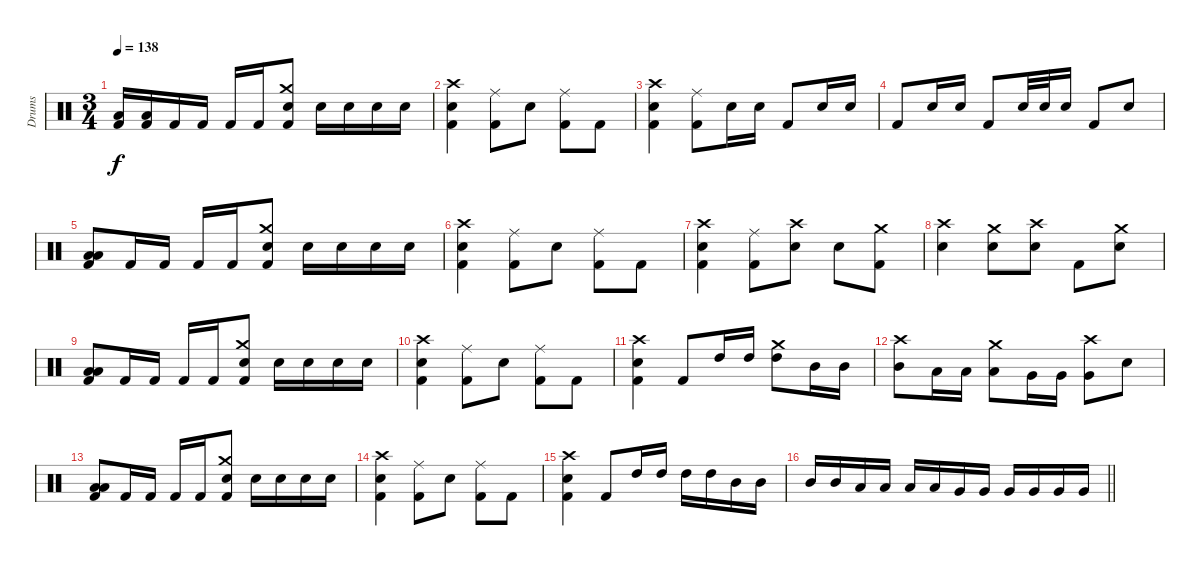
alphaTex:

\track ("Drums" "Drums") {instrument percussion}
\staff {score}
\articulation defaults
\ts (3 4)
\tempo 138
\clef neutral
\ks c
("Low Tom (hit)" "Kick (hit) 2").16{dy f} ("Low Tom (hit)" "Kick (hit) 2").16 "Kick (hit) 2".16 "Kick (hit) 2".16 "Kick (hit) 2".16 "Kick (hit) 2".16 ("Crash medium (hit)" "Electric Snare (hit)" "Kick (hit) 2").8 "Electric Snare (hit)".16 "Electric Snare (hit)".16 "Electric Snare (hit)".16 "Electric Snare (hit)".16 |
("Crash high (hit)" "Electric Snare (hit)" "Kick (hit) 2").4 ("Ride (middle)" "Kick (hit) 2").8 "Electric Snare (hit)".8 ("Ride (middle)" "Kick (hit) 2").8 "Kick (hit) 2".8 |
("Crash high (hit)" "Electric Snare (hit)" "Kick (hit) 2").4 ("Ride (middle)" "Kick (hit) 2").8 "Electric Snare (hit)".16 "Electric Snare (hit)".16 "Kick (hit) 2".8 "Electric Snare (hit)".16 "Electric Snare (hit)".16 |
"Kick (hit) 2".8 "Electric Snare (hit)".16 "Electric Snare (hit)".16 "Kick (hit) 2".8 "Electric Snare (hit)".32 "Electric Snare (hit)".32 "Electric Snare (hit)".16 "Kick (hit) 2".8 "Electric Snare (hit)".8 |
("Low Tom (hit)" "Low Tom (hit)" "Kick (hit) 2").8 "Kick (hit) 2".16 "Kick (hit) 2".16 "Kick (hit) 2".16 "Kick (hit) 2".16 ("Crash medium (hit)" "Electric Snare (hit)" "Kick (hit) 2").8 "Electric Snare (hit)".16 "Electric Snare (hit)".16 "Electric Snare (hit)".16 "Electric Snare (hit)".16 |
("Crash high (hit)" "Electric Snare (hit)" "Kick (hit) 2").4 ("Ride (middle)" "Kick (hit) 2").8 "Electric Snare (hit)".8 ("Ride (middle)" "Kick (hit) 2").8 "Kick (hit) 2".8 |
("Crash high (hit)" "Electric Snare (hit)" "Kick (hit) 2").4 ("Ride (middle)" "Kick (hit) 2").8 ("Crash high (hit)" "Electric Snare (hit)").8 "Electric Snare (hit)".8 ("Crash medium (hit)" "Kick (hit) 2").8 |
("Crash high (hit)" "Electric Snare (hit)").4 ("Crash medium (hit)" "Electric Snare (hit)").8 ("Crash high (hit)" "Electric Snare (hit)").8 "Kick (hit) 2".8 ("Crash medium (hit)" "Electric Snare (hit)").8 |
("Low Tom (hit)" "Low Tom (hit)" "Kick (hit) 2").8 "Kick (hit) 2".16 "Kick (hit) 2".16 "Kick (hit) 2".16 "Kick (hit) 2".16 ("Crash medium (hit)" "Electric Snare (hit)" "Kick (hit) 2").8 "Electric Snare (hit)".16 "Electric Snare (hit)".16 "Electric Snare (hit)".16 "Electric Snare (hit)".16 |
("Crash high (hit)" "Electric Snare (hit)" "Kick (hit) 2").4 ("Ride (middle)" "Kick (hit) 2").8 "Electric Snare (hit)".8 ("Ride (middle)" "Kick (hit) 2").8 "Kick (hit) 2".8 |
("Crash high (hit)" "Electric Snare (hit)" "Kick (hit) 2").4 "Kick (hit) 2".8 "High Tom (hit)".16 "High Tom (hit)".16 ("Crash medium (hit)" "High Tom (hit)").8 "Mid Tom (hit)".16 "Mid Tom (hit)".16 |
("Crash high (hit)" "Mid Tom (hit)").8 "Low Tom (hit)".16 "Low Tom (hit)".16 ("Crash medium (hit)" "Low Tom (hit)").8 "Very Low Tom (hit)".16 "Very Low Tom (hit)".16 ("Crash high (hit)" "Very Low Tom (hit)").8 "Electric Snare (hit)".8 |
("Low Tom (hit)" "Low Tom (hit)" "Kick (hit) 2").8 "Kick (hit) 2".16 "Kick (hit) 2".16 "Kick (hit) 2".16 "Kick (hit) 2".16 ("Crash medium (hit)" "Electric Snare (hit)" "Kick (hit) 2").8 "Electric Snare (hit)".16 "Electric Snare (hit)".16 "Electric Snare (hit)".16 "Electric Snare (hit)".16 |
("Crash high (hit)" "Electric Snare (hit)" "Kick (hit) 2").4 ("Ride (middle)" "Kick (hit) 2").8 "Electric Snare (hit)".8 ("Ride (middle)" "Kick (hit) 2").8 "Kick (hit) 2".8 |
("Crash high (hit)" "Electric Snare (hit)" "Kick (hit) 2").4 "Kick (hit) 2".8 "High Tom (hit)".16 "High Tom (hit)".16 "High Tom (hit)".16 "High Tom (hit)".16 "Mid Tom (hit)".16 "Mid Tom (hit)".16 |
\barLineRight lightlight "Mid Tom (hit)".16 "Mid Tom (hit)".16 "Low Tom (hit)".16 "Low Tom (hit)".16 "Low Tom (hit)".16 "Low Tom (hit)".16 "Very Low Tom (hit)".16 "Very Low Tom (hit)".16 "Very Low Tom (hit)".16 "Very Low Tom (hit)".16 "Very Low Tom (hit)".16 "Very Low Tom (hit)".16
